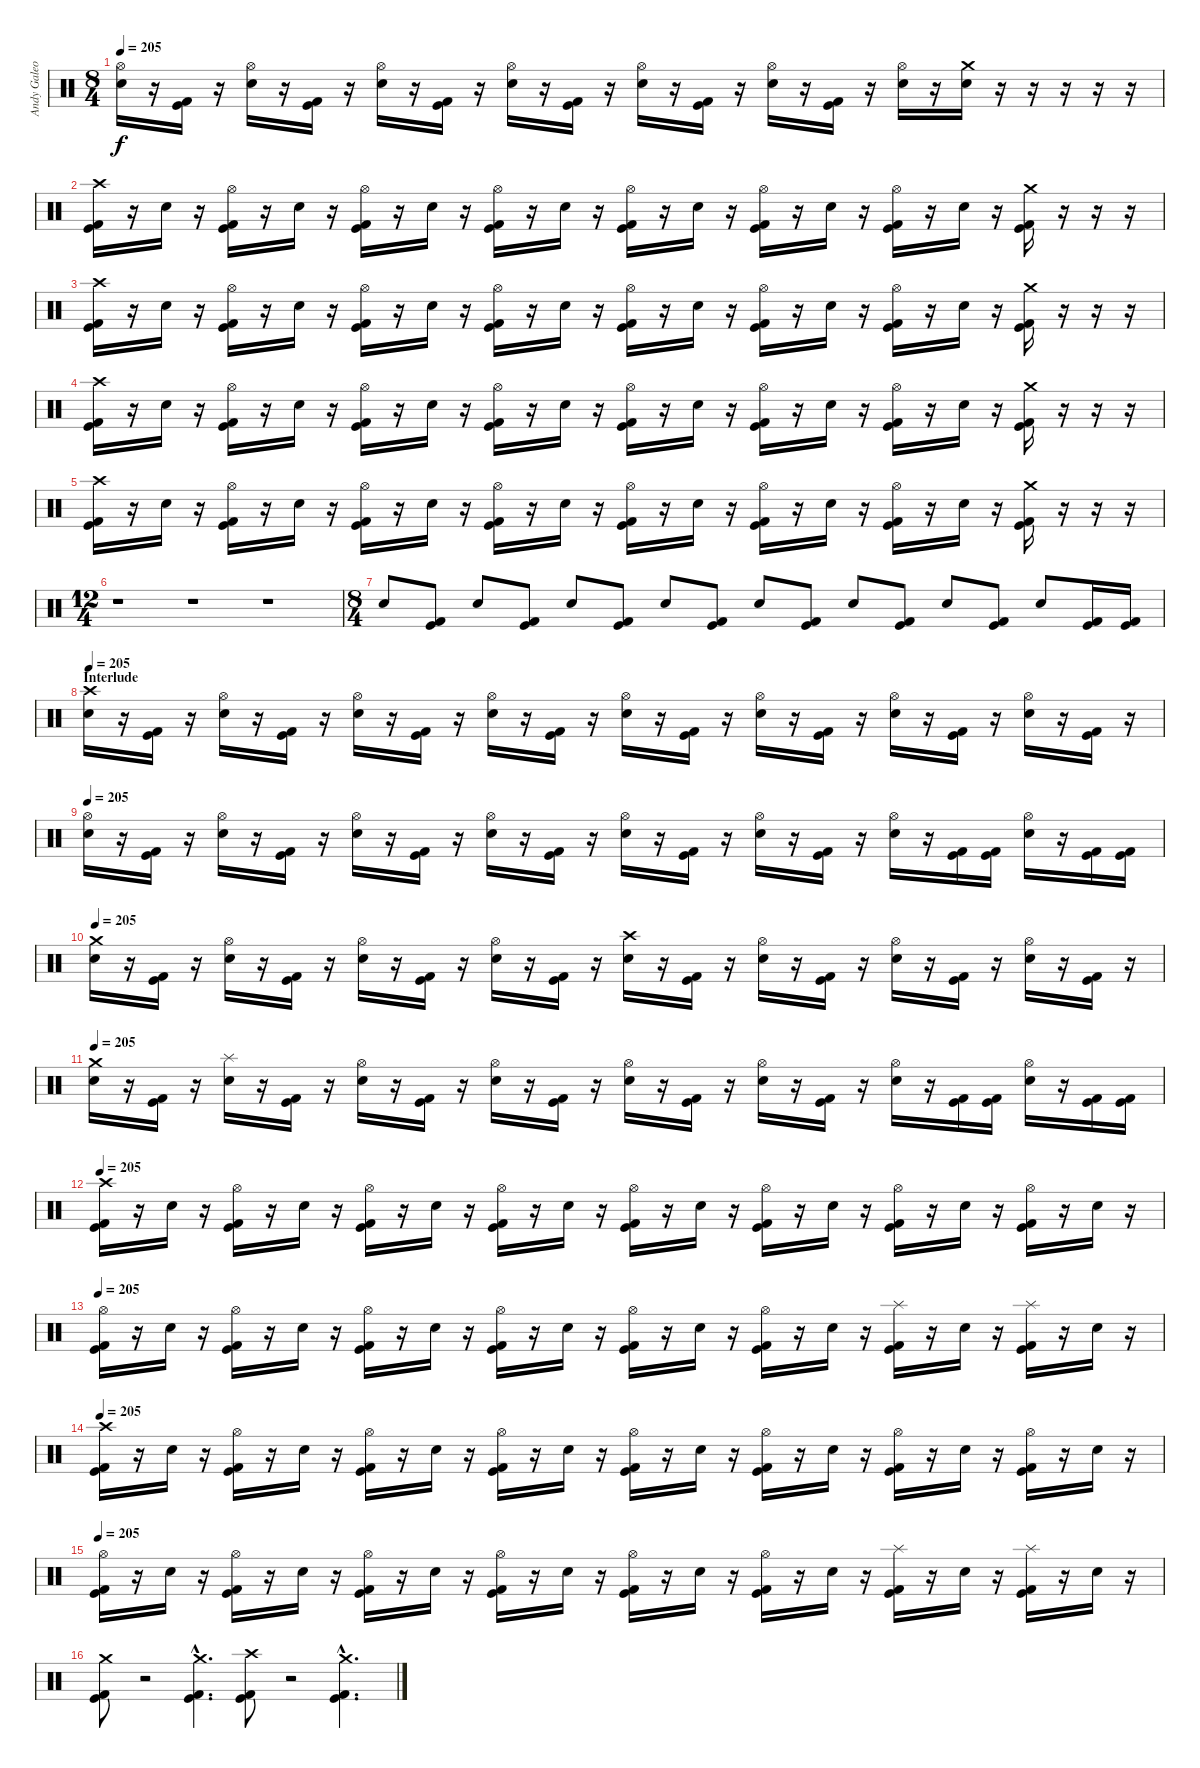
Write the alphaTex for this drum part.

\track ("Andy Galeon - Drums" "Andy Galeo") {instrument percussion}
\staff {score}
\articulation defaults
\ts (8 4)
\tempo 205
\clef neutral
\ks c
("Hi-Hat (open)" "Electric Snare (hit)").16{dy f} r.16 ("Kick (hit) 2" "Kick (hit)").16 r.16 ("Hi-Hat (open)" "Electric Snare (hit)").16 r.16 ("Kick (hit) 2" "Kick (hit)").16 r.16 ("Hi-Hat (open)" "Electric Snare (hit)").16 r.16 ("Kick (hit) 2" "Kick (hit)").16 r.16 ("Hi-Hat (open)" "Electric Snare (hit)").16 r.16 ("Kick (hit) 2" "Kick (hit)").16 r.16 ("Hi-Hat (open)" "Electric Snare (hit)").16 r.16 ("Kick (hit) 2" "Kick (hit)").16 r.16 ("Hi-Hat (open)" "Electric Snare (hit)").16 r.16 ("Kick (hit) 2" "Kick (hit)").16 r.16 ("Hi-Hat (open)" "Electric Snare (hit)").16 r.16 ("Crash medium (hit)" "Electric Snare (hit)").16 r.16 r.16 r.16 r.16 r.16 |
("Crash high (hit)" "Kick (hit) 2" "Kick (hit)").16 r.16 "Electric Snare (hit)".16 r.16 ("Hi-Hat (open)" "Kick (hit) 2" "Kick (hit)").16 r.16 "Electric Snare (hit)".16 r.16 ("Hi-Hat (open)" "Kick (hit) 2" "Kick (hit)").16 r.16 "Electric Snare (hit)".16 r.16 ("Hi-Hat (open)" "Kick (hit) 2" "Kick (hit)").16 r.16 "Electric Snare (hit)".16 r.16 ("Hi-Hat (open)" "Kick (hit) 2" "Kick (hit)").16 r.16 "Electric Snare (hit)".16 r.16 ("Hi-Hat (open)" "Kick (hit) 2" "Kick (hit)").16 r.16 "Electric Snare (hit)".16 r.16 ("Hi-Hat (open)" "Kick (hit) 2" "Kick (hit)").16 r.16 "Electric Snare (hit)".16 r.16 ("Crash medium (hit)" "Kick (hit)" "Kick (hit) 2").16 r.16 r.16 r.16 |
("Crash high (hit)" "Kick (hit) 2" "Kick (hit)").16 r.16 "Electric Snare (hit)".16 r.16 ("Hi-Hat (open)" "Kick (hit) 2" "Kick (hit)").16 r.16 "Electric Snare (hit)".16 r.16 ("Hi-Hat (open)" "Kick (hit) 2" "Kick (hit)").16 r.16 "Electric Snare (hit)".16 r.16 ("Hi-Hat (open)" "Kick (hit) 2" "Kick (hit)").16 r.16 "Electric Snare (hit)".16 r.16 ("Hi-Hat (open)" "Kick (hit) 2" "Kick (hit)").16 r.16 "Electric Snare (hit)".16 r.16 ("Hi-Hat (open)" "Kick (hit) 2" "Kick (hit)").16 r.16 "Electric Snare (hit)".16 r.16 ("Hi-Hat (open)" "Kick (hit) 2" "Kick (hit)").16 r.16 "Electric Snare (hit)".16 r.16 ("Crash medium (hit)" "Kick (hit)" "Kick (hit) 2").16 r.16 r.16 r.16 |
("Crash high (hit)" "Kick (hit) 2" "Kick (hit)").16 r.16 "Electric Snare (hit)".16 r.16 ("Hi-Hat (open)" "Kick (hit) 2" "Kick (hit)").16 r.16 "Electric Snare (hit)".16 r.16 ("Hi-Hat (open)" "Kick (hit) 2" "Kick (hit)").16 r.16 "Electric Snare (hit)".16 r.16 ("Hi-Hat (open)" "Kick (hit) 2" "Kick (hit)").16 r.16 "Electric Snare (hit)".16 r.16 ("Hi-Hat (open)" "Kick (hit) 2" "Kick (hit)").16 r.16 "Electric Snare (hit)".16 r.16 ("Hi-Hat (open)" "Kick (hit) 2" "Kick (hit)").16 r.16 "Electric Snare (hit)".16 r.16 ("Hi-Hat (open)" "Kick (hit) 2" "Kick (hit)").16 r.16 "Electric Snare (hit)".16 r.16 ("Crash medium (hit)" "Kick (hit)" "Kick (hit) 2").16 r.16 r.16 r.16 |
("Crash high (hit)" "Kick (hit) 2" "Kick (hit)").16 r.16 "Electric Snare (hit)".16 r.16 ("Hi-Hat (open)" "Kick (hit) 2" "Kick (hit)").16 r.16 "Electric Snare (hit)".16 r.16 ("Hi-Hat (open)" "Kick (hit) 2" "Kick (hit)").16 r.16 "Electric Snare (hit)".16 r.16 ("Hi-Hat (open)" "Kick (hit) 2" "Kick (hit)").16 r.16 "Electric Snare (hit)".16 r.16 ("Hi-Hat (open)" "Kick (hit) 2" "Kick (hit)").16 r.16 "Electric Snare (hit)".16 r.16 ("Hi-Hat (open)" "Kick (hit) 2" "Kick (hit)").16 r.16 "Electric Snare (hit)".16 r.16 ("Hi-Hat (open)" "Kick (hit) 2" "Kick (hit)").16 r.16 "Electric Snare (hit)".16 r.16 ("Crash medium (hit)" "Kick (hit)" "Kick (hit) 2").16 r.16 r.16 r.16 |
\ts (12 4)
r.1 r.1 r.1 |
\ts (8 4)
"Electric Snare (hit)".8 ("Kick (hit) 2" "Kick (hit)").8 "Electric Snare (hit)".8 ("Kick (hit) 2" "Kick (hit)").8 "Electric Snare (hit)".8 ("Kick (hit) 2" "Kick (hit)").8 "Electric Snare (hit)".8 ("Kick (hit) 2" "Kick (hit)").8 "Electric Snare (hit)".8 ("Kick (hit) 2" "Kick (hit)").8 "Electric Snare (hit)".8 ("Kick (hit) 2" "Kick (hit)").8 "Electric Snare (hit)".8 ("Kick (hit) 2" "Kick (hit)").8 "Electric Snare (hit)".8 ("Kick (hit) 2" "Kick (hit)").16 ("Kick (hit)" "Kick (hit) 2").16 |
\section ("" "Interlude")
\tempo 205
("Crash high (hit)" "Electric Snare (hit)").16 r.16 ("Kick (hit) 2" "Kick (hit)").16 r.16 ("Hi-Hat (open)" "Electric Snare (hit)").16 r.16 ("Kick (hit) 2" "Kick (hit)").16 r.16 ("Hi-Hat (open)" "Electric Snare (hit)").16 r.16 ("Kick (hit) 2" "Kick (hit)").16 r.16 ("Hi-Hat (open)" "Electric Snare (hit)").16 r.16 ("Kick (hit) 2" "Kick (hit)").16 r.16 ("Hi-Hat (open)" "Electric Snare (hit)").16 r.16 ("Kick (hit) 2" "Kick (hit)").16 r.16 ("Hi-Hat (open)" "Electric Snare (hit)").16 r.16 ("Kick (hit) 2" "Kick (hit)").16 r.16 ("Hi-Hat (open)" "Electric Snare (hit)").16 r.16 ("Kick (hit) 2" "Kick (hit)").16 r.16 ("Hi-Hat (open)" "Electric Snare (hit)").16 r.16 ("Kick (hit) 2" "Kick (hit)").16 r.16 |
\tempo 205
("Hi-Hat (open)" "Electric Snare (hit)").16 r.16 ("Kick (hit) 2" "Kick (hit)").16 r.16 ("Hi-Hat (open)" "Electric Snare (hit)").16 r.16 ("Kick (hit) 2" "Kick (hit)").16 r.16 ("Hi-Hat (open)" "Electric Snare (hit)").16 r.16 ("Kick (hit) 2" "Kick (hit)").16 r.16 ("Hi-Hat (open)" "Electric Snare (hit)").16 r.16 ("Kick (hit) 2" "Kick (hit)").16 r.16 ("Hi-Hat (open)" "Electric Snare (hit)").16 r.16 ("Kick (hit) 2" "Kick (hit)").16 r.16 ("Hi-Hat (open)" "Electric Snare (hit)").16 r.16 ("Kick (hit) 2" "Kick (hit)").16 r.16 ("Hi-Hat (open)" "Electric Snare (hit)").16 r.16 ("Kick (hit) 2" "Kick (hit)").16 ("Kick (hit) 2" "Kick (hit)").16 ("Hi-Hat (open)" "Electric Snare (hit)").16 r.16 ("Kick (hit) 2" "Kick (hit)").16 ("Kick (hit) 2" "Kick (hit)").16 |
\tempo 205
("Crash medium (hit)" "Electric Snare (hit)").16 r.16 ("Kick (hit) 2" "Kick (hit)").16 r.16 ("Hi-Hat (open)" "Electric Snare (hit)").16 r.16 ("Kick (hit) 2" "Kick (hit)").16 r.16 ("Hi-Hat (open)" "Electric Snare (hit)").16 r.16 ("Kick (hit) 2" "Kick (hit)").16 r.16 ("Hi-Hat (open)" "Electric Snare (hit)").16 r.16 ("Kick (hit) 2" "Kick (hit)").16 r.16 ("Crash high (hit)" "Electric Snare (hit)").16 r.16 ("Kick (hit) 2" "Kick (hit)").16 r.16 ("Hi-Hat (open)" "Electric Snare (hit)").16 r.16 ("Kick (hit) 2" "Kick (hit)").16 r.16 ("Hi-Hat (open)" "Electric Snare (hit)").16 r.16 ("Kick (hit) 2" "Kick (hit)").16 r.16 ("Hi-Hat (open)" "Electric Snare (hit)").16 r.16 ("Kick (hit) 2" "Kick (hit)").16 r.16 |
\tempo 205
("Crash medium (hit)" "Electric Snare (hit)").16 r.16 ("Kick (hit) 2" "Kick (hit)").16 r.16 ("Splash (hit)" "Electric Snare (hit)").16 r.16 ("Kick (hit) 2" "Kick (hit)").16 r.16 ("Hi-Hat (open)" "Electric Snare (hit)").16 r.16 ("Kick (hit) 2" "Kick (hit)").16 r.16 ("Hi-Hat (open)" "Electric Snare (hit)").16 r.16 ("Kick (hit) 2" "Kick (hit)").16 r.16 ("Hi-Hat (open)" "Electric Snare (hit)").16 r.16 ("Kick (hit) 2" "Kick (hit)").16 r.16 ("Hi-Hat (open)" "Electric Snare (hit)").16 r.16 ("Kick (hit) 2" "Kick (hit)").16 r.16 ("Hi-Hat (open)" "Electric Snare (hit)").16 r.16 ("Kick (hit) 2" "Kick (hit)").16 ("Kick (hit) 2" "Kick (hit)").16 ("Hi-Hat (open)" "Electric Snare (hit)").16 r.16 ("Kick (hit) 2" "Kick (hit)").16 ("Kick (hit) 2" "Kick (hit)").16 |
\tempo 205
("Crash high (hit)" "Kick (hit) 2" "Kick (hit)").16 r.16 "Electric Snare (hit)".16 r.16 ("Hi-Hat (open)" "Kick (hit) 2" "Kick (hit)").16 r.16 "Electric Snare (hit)".16 r.16 ("Hi-Hat (open)" "Kick (hit) 2" "Kick (hit)").16 r.16 "Electric Snare (hit)".16 r.16 ("Hi-Hat (open)" "Kick (hit) 2" "Kick (hit)").16 r.16 "Electric Snare (hit)".16 r.16 ("Hi-Hat (open)" "Kick (hit) 2" "Kick (hit)").16 r.16 "Electric Snare (hit)".16 r.16 ("Hi-Hat (open)" "Kick (hit) 2" "Kick (hit)").16 r.16 "Electric Snare (hit)".16 r.16 ("Hi-Hat (open)" "Kick (hit) 2" "Kick (hit)").16 r.16 "Electric Snare (hit)".16 r.16 ("Hi-Hat (open)" "Kick (hit)" "Kick (hit) 2").16 r.16 "Electric Snare (hit)".16 r.16 |
\tempo 205
("Hi-Hat (open)" "Kick (hit) 2" "Kick (hit)").16 r.16 "Electric Snare (hit)".16 r.16 ("Hi-Hat (open)" "Kick (hit) 2" "Kick (hit)").16 r.16 "Electric Snare (hit)".16 r.16 ("Hi-Hat (open)" "Kick (hit) 2" "Kick (hit)").16 r.16 "Electric Snare (hit)".16 r.16 ("Hi-Hat (open)" "Kick (hit) 2" "Kick (hit)").16 r.16 "Electric Snare (hit)".16 r.16 ("Hi-Hat (open)" "Kick (hit) 2" "Kick (hit)").16 r.16 "Electric Snare (hit)".16 r.16 ("Hi-Hat (open)" "Kick (hit) 2" "Kick (hit)").16 r.16 "Electric Snare (hit)".16 r.16 ("Splash (hit)" "Kick (hit) 2" "Kick (hit)").16 r.16 "Electric Snare (hit)".16 r.16 ("Splash (hit)" "Kick (hit)" "Kick (hit) 2").16 r.16 "Electric Snare (hit)".16 r.16 |
\tempo 205
("Crash high (hit)" "Kick (hit) 2" "Kick (hit)").16 r.16 "Electric Snare (hit)".16 r.16 ("Hi-Hat (open)" "Kick (hit) 2" "Kick (hit)").16 r.16 "Electric Snare (hit)".16 r.16 ("Hi-Hat (open)" "Kick (hit) 2" "Kick (hit)").16 r.16 "Electric Snare (hit)".16 r.16 ("Hi-Hat (open)" "Kick (hit) 2" "Kick (hit)").16 r.16 "Electric Snare (hit)".16 r.16 ("Hi-Hat (open)" "Kick (hit) 2" "Kick (hit)").16 r.16 "Electric Snare (hit)".16 r.16 ("Hi-Hat (open)" "Kick (hit) 2" "Kick (hit)").16 r.16 "Electric Snare (hit)".16 r.16 ("Hi-Hat (open)" "Kick (hit) 2" "Kick (hit)").16 r.16 "Electric Snare (hit)".16 r.16 ("Hi-Hat (open)" "Kick (hit)" "Kick (hit) 2").16 r.16 "Electric Snare (hit)".16 r.16 |
\tempo 205
("Hi-Hat (open)" "Kick (hit) 2" "Kick (hit)").16 r.16 "Electric Snare (hit)".16 r.16 ("Hi-Hat (open)" "Kick (hit) 2" "Kick (hit)").16 r.16 "Electric Snare (hit)".16 r.16 ("Hi-Hat (open)" "Kick (hit) 2" "Kick (hit)").16 r.16 "Electric Snare (hit)".16 r.16 ("Hi-Hat (open)" "Kick (hit) 2" "Kick (hit)").16 r.16 "Electric Snare (hit)".16 r.16 ("Hi-Hat (open)" "Kick (hit) 2" "Kick (hit)").16 r.16 "Electric Snare (hit)".16 r.16 ("Hi-Hat (open)" "Kick (hit) 2" "Kick (hit)").16 r.16 "Electric Snare (hit)".16 r.16 ("Splash (hit)" "Kick (hit) 2" "Kick (hit)").16 r.16 "Electric Snare (hit)".16 r.16 ("Splash (hit)" "Kick (hit)" "Kick (hit) 2").16 r.16 "Electric Snare (hit)".16 r.16 |
("Crash medium (hit)" "Kick (hit) 2" "Kick (hit)").8 r.2 ("Crash medium (hit)"{hac} "Kick (hit)"{hac} "Kick (hit) 2"{hac}).4{d} ("Crash high (hit)" "Kick (hit) 2" "Kick (hit)").8 r.2 ("Crash medium (hit)"{hac} "Kick (hit) 2"{hac} "Kick (hit)"{hac}).4{d}
